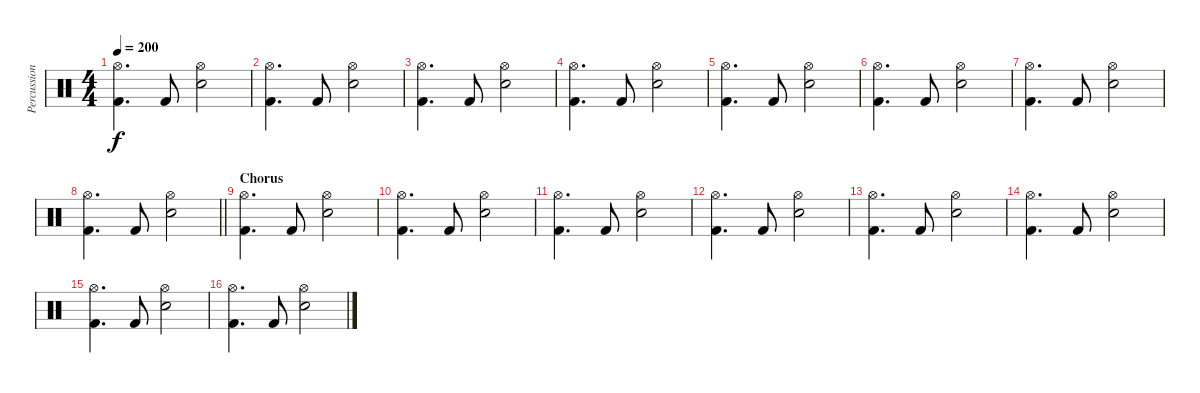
\track ("Percussion" "Percussion") {instrument percussion}
\staff {score}
\articulation defaults
\ts (4 4)
\tempo 200
\clef neutral
\ks c
("Hi-Hat (open)" "Kick (hit) 2").4{d dy f} "Kick (hit) 2".8 ("Hi-Hat (open)" "Electric Snare (hit)").2 |
("Hi-Hat (open)" "Kick (hit) 2").4{d} "Kick (hit) 2".8 ("Hi-Hat (open)" "Electric Snare (hit)").2 |
("Hi-Hat (open)" "Kick (hit) 2").4{d} "Kick (hit) 2".8 ("Hi-Hat (open)" "Electric Snare (hit)").2 |
("Hi-Hat (open)" "Kick (hit) 2").4{d} "Kick (hit) 2".8 ("Hi-Hat (open)" "Electric Snare (hit)").2 |
("Hi-Hat (open)" "Kick (hit) 2").4{d} "Kick (hit) 2".8 ("Hi-Hat (open)" "Electric Snare (hit)").2 |
("Hi-Hat (open)" "Kick (hit) 2").4{d} "Kick (hit) 2".8 ("Hi-Hat (open)" "Electric Snare (hit)").2 |
("Hi-Hat (open)" "Kick (hit) 2").4{d} "Kick (hit) 2".8 ("Hi-Hat (open)" "Electric Snare (hit)").2 |
\barLineRight lightlight
("Hi-Hat (open)" "Kick (hit) 2").4{d} "Kick (hit) 2".8 ("Hi-Hat (open)" "Electric Snare (hit)").2 |
\section ("" "Chorus")
("Hi-Hat (open)" "Kick (hit) 2").4{d} "Kick (hit) 2".8 ("Hi-Hat (open)" "Electric Snare (hit)").2 |
("Hi-Hat (open)" "Kick (hit) 2").4{d} "Kick (hit) 2".8 ("Hi-Hat (open)" "Electric Snare (hit)").2 |
("Hi-Hat (open)" "Kick (hit) 2").4{d} "Kick (hit) 2".8 ("Hi-Hat (open)" "Electric Snare (hit)").2 |
("Hi-Hat (open)" "Kick (hit) 2").4{d} "Kick (hit) 2".8 ("Hi-Hat (open)" "Electric Snare (hit)").2 |
("Hi-Hat (open)" "Kick (hit) 2").4{d} "Kick (hit) 2".8 ("Hi-Hat (open)" "Electric Snare (hit)").2 |
("Hi-Hat (open)" "Kick (hit) 2").4{d} "Kick (hit) 2".8 ("Hi-Hat (open)" "Electric Snare (hit)").2 |
("Hi-Hat (open)" "Kick (hit) 2").4{d} "Kick (hit) 2".8 ("Hi-Hat (open)" "Electric Snare (hit)").2 |
("Hi-Hat (open)" "Kick (hit) 2").4{d} "Kick (hit) 2".8 ("Hi-Hat (open)" "Electric Snare (hit)").2
